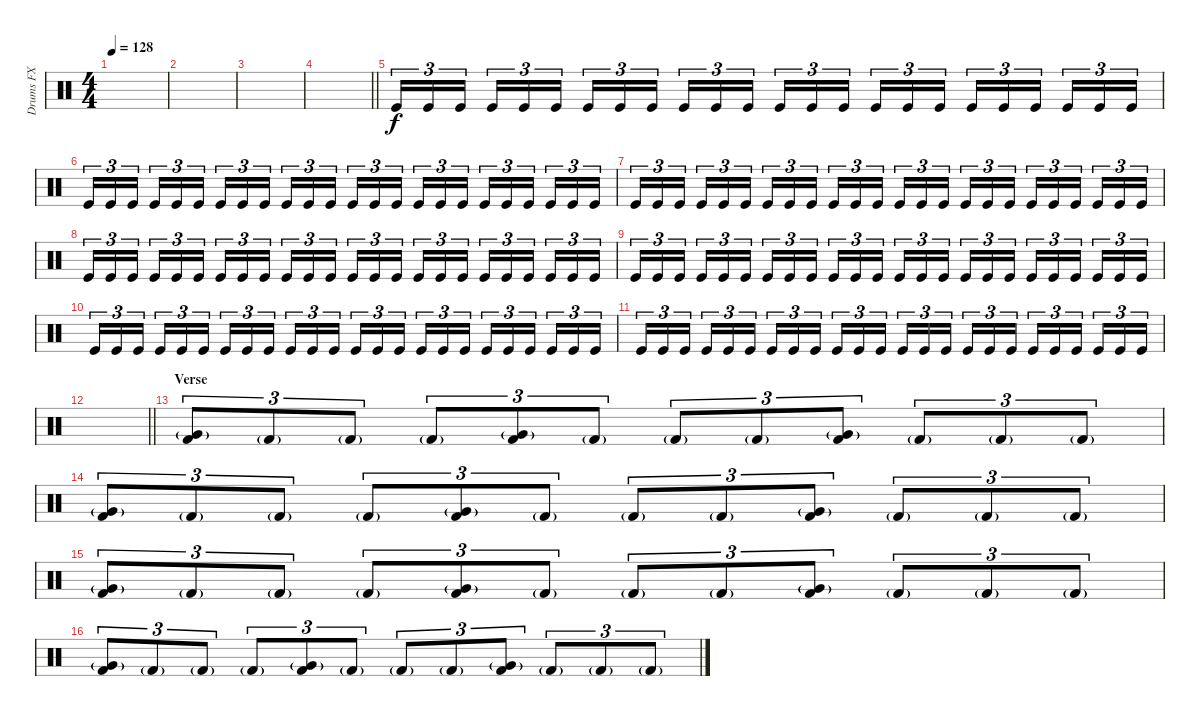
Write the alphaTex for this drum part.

\track ("Drums FX" "Drums FX") {instrument percussion}
\staff {score}
\articulation defaults
\ts (4 4)
\tempo 128
\clef neutral
\ks c
|
|
|
\barLineRight lightlight
|
\section ("" "")
"Kick (hit)".16{tu (3 2)} "Kick (hit)".16{tu (3 2)} "Kick (hit)".16{tu (3 2) beam splitsecondary} "Kick (hit)".16{tu (3 2)} "Kick (hit)".16{tu (3 2)} "Kick (hit)".16{tu (3 2)} "Kick (hit)".16{tu (3 2)} "Kick (hit)".16{tu (3 2)} "Kick (hit)".16{tu (3 2) beam splitsecondary} "Kick (hit)".16{tu (3 2)} "Kick (hit)".16{tu (3 2)} "Kick (hit)".16{tu (3 2)} "Kick (hit)".16{tu (3 2)} "Kick (hit)".16{tu (3 2)} "Kick (hit)".16{tu (3 2) beam splitsecondary} "Kick (hit)".16{tu (3 2)} "Kick (hit)".16{tu (3 2)} "Kick (hit)".16{tu (3 2)} "Kick (hit)".16{tu (3 2)} "Kick (hit)".16{tu (3 2)} "Kick (hit)".16{tu (3 2) beam splitsecondary} "Kick (hit)".16{tu (3 2)} "Kick (hit)".16{tu (3 2)} "Kick (hit)".16{tu (3 2)} |
"Kick (hit)".16{tu (3 2)} "Kick (hit)".16{tu (3 2)} "Kick (hit)".16{tu (3 2) beam splitsecondary} "Kick (hit)".16{tu (3 2)} "Kick (hit)".16{tu (3 2)} "Kick (hit)".16{tu (3 2)} "Kick (hit)".16{tu (3 2)} "Kick (hit)".16{tu (3 2)} "Kick (hit)".16{tu (3 2) beam splitsecondary} "Kick (hit)".16{tu (3 2)} "Kick (hit)".16{tu (3 2)} "Kick (hit)".16{tu (3 2)} "Kick (hit)".16{tu (3 2)} "Kick (hit)".16{tu (3 2)} "Kick (hit)".16{tu (3 2) beam splitsecondary} "Kick (hit)".16{tu (3 2)} "Kick (hit)".16{tu (3 2)} "Kick (hit)".16{tu (3 2)} "Kick (hit)".16{tu (3 2)} "Kick (hit)".16{tu (3 2)} "Kick (hit)".16{tu (3 2) beam splitsecondary} "Kick (hit)".16{tu (3 2)} "Kick (hit)".16{tu (3 2)} "Kick (hit)".16{tu (3 2)} |
"Kick (hit)".16{tu (3 2)} "Kick (hit)".16{tu (3 2)} "Kick (hit)".16{tu (3 2) beam splitsecondary} "Kick (hit)".16{tu (3 2)} "Kick (hit)".16{tu (3 2)} "Kick (hit)".16{tu (3 2)} "Kick (hit)".16{tu (3 2)} "Kick (hit)".16{tu (3 2)} "Kick (hit)".16{tu (3 2) beam splitsecondary} "Kick (hit)".16{tu (3 2)} "Kick (hit)".16{tu (3 2)} "Kick (hit)".16{tu (3 2)} "Kick (hit)".16{tu (3 2)} "Kick (hit)".16{tu (3 2)} "Kick (hit)".16{tu (3 2) beam splitsecondary} "Kick (hit)".16{tu (3 2)} "Kick (hit)".16{tu (3 2)} "Kick (hit)".16{tu (3 2)} "Kick (hit)".16{tu (3 2)} "Kick (hit)".16{tu (3 2)} "Kick (hit)".16{tu (3 2) beam splitsecondary} "Kick (hit)".16{tu (3 2)} "Kick (hit)".16{tu (3 2)} "Kick (hit)".16{tu (3 2)} |
"Kick (hit)".16{tu (3 2)} "Kick (hit)".16{tu (3 2)} "Kick (hit)".16{tu (3 2) beam splitsecondary} "Kick (hit)".16{tu (3 2)} "Kick (hit)".16{tu (3 2)} "Kick (hit)".16{tu (3 2)} "Kick (hit)".16{tu (3 2)} "Kick (hit)".16{tu (3 2)} "Kick (hit)".16{tu (3 2) beam splitsecondary} "Kick (hit)".16{tu (3 2)} "Kick (hit)".16{tu (3 2)} "Kick (hit)".16{tu (3 2)} "Kick (hit)".16{tu (3 2)} "Kick (hit)".16{tu (3 2)} "Kick (hit)".16{tu (3 2) beam splitsecondary} "Kick (hit)".16{tu (3 2)} "Kick (hit)".16{tu (3 2)} "Kick (hit)".16{tu (3 2)} "Kick (hit)".16{tu (3 2)} "Kick (hit)".16{tu (3 2)} "Kick (hit)".16{tu (3 2) beam splitsecondary} "Kick (hit)".16{tu (3 2)} "Kick (hit)".16{tu (3 2)} "Kick (hit)".16{tu (3 2)} |
"Kick (hit)".16{tu (3 2)} "Kick (hit)".16{tu (3 2)} "Kick (hit)".16{tu (3 2) beam splitsecondary} "Kick (hit)".16{tu (3 2)} "Kick (hit)".16{tu (3 2)} "Kick (hit)".16{tu (3 2)} "Kick (hit)".16{tu (3 2)} "Kick (hit)".16{tu (3 2)} "Kick (hit)".16{tu (3 2) beam splitsecondary} "Kick (hit)".16{tu (3 2)} "Kick (hit)".16{tu (3 2)} "Kick (hit)".16{tu (3 2)} "Kick (hit)".16{tu (3 2)} "Kick (hit)".16{tu (3 2)} "Kick (hit)".16{tu (3 2) beam splitsecondary} "Kick (hit)".16{tu (3 2)} "Kick (hit)".16{tu (3 2)} "Kick (hit)".16{tu (3 2)} "Kick (hit)".16{tu (3 2)} "Kick (hit)".16{tu (3 2)} "Kick (hit)".16{tu (3 2) beam splitsecondary} "Kick (hit)".16{tu (3 2)} "Kick (hit)".16{tu (3 2)} "Kick (hit)".16{tu (3 2)} |
"Kick (hit)".16{tu (3 2)} "Kick (hit)".16{tu (3 2)} "Kick (hit)".16{tu (3 2) beam splitsecondary} "Kick (hit)".16{tu (3 2)} "Kick (hit)".16{tu (3 2)} "Kick (hit)".16{tu (3 2)} "Kick (hit)".16{tu (3 2)} "Kick (hit)".16{tu (3 2)} "Kick (hit)".16{tu (3 2) beam splitsecondary} "Kick (hit)".16{tu (3 2)} "Kick (hit)".16{tu (3 2)} "Kick (hit)".16{tu (3 2)} "Kick (hit)".16{tu (3 2)} "Kick (hit)".16{tu (3 2)} "Kick (hit)".16{tu (3 2) beam splitsecondary} "Kick (hit)".16{tu (3 2)} "Kick (hit)".16{tu (3 2)} "Kick (hit)".16{tu (3 2)} "Kick (hit)".16{tu (3 2)} "Kick (hit)".16{tu (3 2)} "Kick (hit)".16{tu (3 2) beam splitsecondary} "Kick (hit)".16{tu (3 2)} "Kick (hit)".16{tu (3 2)} "Kick (hit)".16{tu (3 2)} |
"Kick (hit)".16{tu (3 2)} "Kick (hit)".16{tu (3 2)} "Kick (hit)".16{tu (3 2) beam splitsecondary} "Kick (hit)".16{tu (3 2)} "Kick (hit)".16{tu (3 2)} "Kick (hit)".16{tu (3 2)} "Kick (hit)".16{tu (3 2)} "Kick (hit)".16{tu (3 2)} "Kick (hit)".16{tu (3 2) beam splitsecondary} "Kick (hit)".16{tu (3 2)} "Kick (hit)".16{tu (3 2)} "Kick (hit)".16{tu (3 2)} "Kick (hit)".16{tu (3 2)} "Kick (hit)".16{tu (3 2)} "Kick (hit)".16{tu (3 2) beam splitsecondary} "Kick (hit)".16{tu (3 2)} "Kick (hit)".16{tu (3 2)} "Kick (hit)".16{tu (3 2)} "Kick (hit)".16{tu (3 2)} "Kick (hit)".16{tu (3 2)} "Kick (hit)".16{tu (3 2) beam splitsecondary} "Kick (hit)".16{tu (3 2)} "Kick (hit)".16{tu (3 2)} "Kick (hit)".16{tu (3 2)} |
\barLineRight lightlight
|
\section ("" "Verse")
("Very Low Tom (hit)"{g} "Kick (hit) 2").8{tu (3 2)} "Kick (hit) 2"{g}.8{tu (3 2)} "Kick (hit) 2"{g}.8{tu (3 2)} "Kick (hit) 2"{g}.8{tu (3 2)} ("Very Low Tom (hit)"{g} "Kick (hit) 2").8{tu (3 2)} "Kick (hit) 2"{g}.8{tu (3 2)} "Kick (hit) 2"{g}.8{tu (3 2)} "Kick (hit) 2"{g}.8{tu (3 2)} ("Very Low Tom (hit)"{g} "Kick (hit) 2").8{tu (3 2)} "Kick (hit) 2"{g}.8{tu (3 2)} "Kick (hit) 2"{g}.8{tu (3 2)} "Kick (hit) 2"{g}.8{tu (3 2)} |
("Very Low Tom (hit)"{g} "Kick (hit) 2").8{tu (3 2)} "Kick (hit) 2"{g}.8{tu (3 2)} "Kick (hit) 2"{g}.8{tu (3 2)} "Kick (hit) 2"{g}.8{tu (3 2)} ("Very Low Tom (hit)"{g} "Kick (hit) 2").8{tu (3 2)} "Kick (hit) 2"{g}.8{tu (3 2)} "Kick (hit) 2"{g}.8{tu (3 2)} "Kick (hit) 2"{g}.8{tu (3 2)} ("Very Low Tom (hit)"{g} "Kick (hit) 2").8{tu (3 2)} "Kick (hit) 2"{g}.8{tu (3 2)} "Kick (hit) 2"{g}.8{tu (3 2)} "Kick (hit) 2"{g}.8{tu (3 2)} |
("Very Low Tom (hit)"{g} "Kick (hit) 2").8{tu (3 2)} "Kick (hit) 2"{g}.8{tu (3 2)} "Kick (hit) 2"{g}.8{tu (3 2)} "Kick (hit) 2"{g}.8{tu (3 2)} ("Very Low Tom (hit)"{g} "Kick (hit) 2").8{tu (3 2)} "Kick (hit) 2"{g}.8{tu (3 2)} "Kick (hit) 2"{g}.8{tu (3 2)} "Kick (hit) 2"{g}.8{tu (3 2)} ("Very Low Tom (hit)"{g} "Kick (hit) 2").8{tu (3 2)} "Kick (hit) 2"{g}.8{tu (3 2)} "Kick (hit) 2"{g}.8{tu (3 2)} "Kick (hit) 2"{g}.8{tu (3 2)} |
("Very Low Tom (hit)"{g} "Kick (hit) 2").8{tu (3 2)} "Kick (hit) 2"{g}.8{tu (3 2)} "Kick (hit) 2"{g}.8{tu (3 2)} "Kick (hit) 2"{g}.8{tu (3 2)} ("Very Low Tom (hit)"{g} "Kick (hit) 2").8{tu (3 2)} "Kick (hit) 2"{g}.8{tu (3 2)} "Kick (hit) 2"{g}.8{tu (3 2)} "Kick (hit) 2"{g}.8{tu (3 2)} ("Very Low Tom (hit)"{g} "Kick (hit) 2").8{tu (3 2)} "Kick (hit) 2"{g}.8{tu (3 2)} "Kick (hit) 2"{g}.8{tu (3 2)} "Kick (hit) 2"{g}.8{tu (3 2)}
